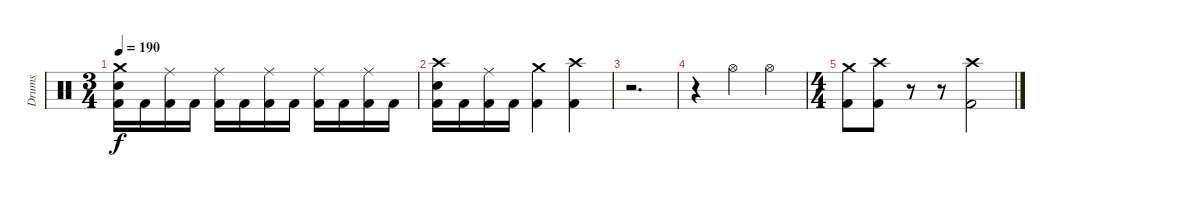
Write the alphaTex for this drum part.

\track ("Drums" "Drums") {instrument percussion}
\staff {score}
\articulation defaults
\ts (3 4)
\tempo 190
\clef neutral
\ks c
("Crash medium (hit)" "Electric Snare (hit)" "Kick (hit) 2").16{dy f} "Kick (hit) 2".16 ("Ride (middle)" "Kick (hit) 2").16 "Kick (hit) 2".16 ("Ride (middle)" "Kick (hit) 2").16 "Kick (hit) 2".16 ("Ride (middle)" "Kick (hit) 2").16 "Kick (hit) 2".16 ("Ride (middle)" "Kick (hit) 2").16 "Kick (hit) 2".16 ("Ride (middle)" "Kick (hit) 2").16 "Kick (hit) 2".16 |
("Crash high (hit)" "Electric Snare (hit)" "Kick (hit) 2").16 "Kick (hit) 2".16 ("Ride (middle)" "Kick (hit) 2").16 "Kick (hit) 2".16 ("Crash medium (hit)" "Kick (hit) 2").4 ("Crash high (hit)" "Kick (hit) 2").4 |
r.2{d} |
r.4 "Hi-Hat (open)".4 "Hi-Hat (open)".4 |
\ts (4 4)
("Crash medium (hit)" "Kick (hit) 2").8 ("Crash high (hit)" "Kick (hit) 2").8 r.8 r.8 ("Crash high (hit)" "Kick (hit) 2").2
